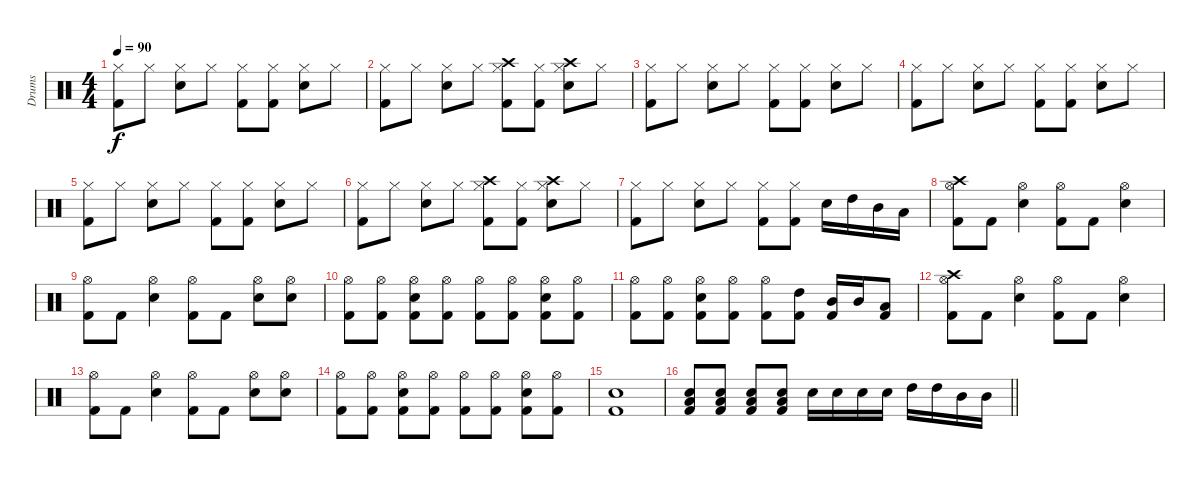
\track ("Drums" "Drums") {instrument percussion}
\staff {score}
\articulation defaults
\ts (4 4)
\tempo 90
\clef neutral
\ks c
("Hi-Hat (closed)" "Kick (hit) 2").8{dy f} "Hi-Hat (closed)".8 ("Hi-Hat (closed)" "Snare (hit) 2").8 "Hi-Hat (closed)".8 ("Hi-Hat (closed)" "Kick (hit) 2").8 ("Hi-Hat (closed)" "Kick (hit) 2").8 ("Hi-Hat (closed)" "Snare (hit) 2").8 "Hi-Hat (closed)".8 |
("Hi-Hat (closed)" "Kick (hit) 2").8 "Hi-Hat (closed)".8 ("Hi-Hat (closed)" "Snare (hit) 2").8 "Hi-Hat (closed)".8 ("Crash high (hit)" "Hi-Hat (closed)" "Kick (hit) 2").8 ("Hi-Hat (closed)" "Kick (hit) 2").8 ("Crash high (hit)" "Hi-Hat (closed)" "Snare (hit) 2").8 "Hi-Hat (closed)".8 |
("Hi-Hat (closed)" "Kick (hit) 2").8 "Hi-Hat (closed)".8 ("Hi-Hat (closed)" "Snare (hit) 2").8 "Hi-Hat (closed)".8 ("Hi-Hat (closed)" "Kick (hit) 2").8 ("Hi-Hat (closed)" "Kick (hit) 2").8 ("Hi-Hat (closed)" "Snare (hit) 2").8 "Hi-Hat (closed)".8 |
("Hi-Hat (closed)" "Kick (hit) 2").8 "Hi-Hat (closed)".8 ("Hi-Hat (closed)" "Snare (hit) 2").8 "Hi-Hat (closed)".8 ("Hi-Hat (closed)" "Kick (hit) 2").8 ("Hi-Hat (closed)" "Kick (hit) 2").8 ("Hi-Hat (closed)" "Snare (hit) 2").8 "Hi-Hat (closed)".8 |
("Hi-Hat (closed)" "Kick (hit) 2").8 "Hi-Hat (closed)".8 ("Hi-Hat (closed)" "Snare (hit) 2").8 "Hi-Hat (closed)".8 ("Hi-Hat (closed)" "Kick (hit) 2").8 ("Hi-Hat (closed)" "Kick (hit) 2").8 ("Hi-Hat (closed)" "Snare (hit) 2").8 "Hi-Hat (closed)".8 |
("Hi-Hat (closed)" "Kick (hit) 2").8 "Hi-Hat (closed)".8 ("Hi-Hat (closed)" "Snare (hit) 2").8 "Hi-Hat (closed)".8 ("Crash high (hit)" "Hi-Hat (closed)" "Kick (hit) 2").8 ("Hi-Hat (closed)" "Kick (hit) 2").8 ("Crash high (hit)" "Hi-Hat (closed)" "Snare (hit) 2").8 "Hi-Hat (closed)".8 |
("Hi-Hat (closed)" "Kick (hit) 2").8 "Hi-Hat (closed)".8 ("Hi-Hat (closed)" "Snare (hit) 2").8 "Hi-Hat (closed)".8 ("Hi-Hat (closed)" "Kick (hit) 2").8 ("Hi-Hat (closed)" "Kick (hit) 2").8 "Snare (hit) 2".16 "High Tom (hit)".16 "Mid Tom (hit)".16 "Low Tom (hit)".16 |
("Crash high (hit)" "Hi-Hat (open)" "Kick (hit) 2").8 "Kick (hit) 2".8 ("Hi-Hat (open)" "Snare (hit) 2").4 ("Hi-Hat (open)" "Kick (hit) 2").8 "Kick (hit) 2".8 ("Hi-Hat (open)" "Snare (hit) 2").4 |
("Hi-Hat (open)" "Kick (hit) 2").8 "Kick (hit) 2".8 ("Hi-Hat (open)" "Snare (hit) 2").4 ("Hi-Hat (open)" "Kick (hit) 2").8 "Kick (hit) 2".8 ("Hi-Hat (open)" "Snare (hit) 2").8 ("Hi-Hat (open)" "Snare (hit) 2").8 |
("Hi-Hat (open)" "Kick (hit) 2").8 ("Hi-Hat (open)" "Kick (hit) 2").8 ("Hi-Hat (open)" "Snare (hit) 2" "Kick (hit) 2").8 ("Hi-Hat (open)" "Kick (hit) 2").8 ("Hi-Hat (open)" "Kick (hit) 2").8 ("Hi-Hat (open)" "Kick (hit) 2").8 ("Hi-Hat (open)" "Snare (hit) 2" "Kick (hit) 2").8 ("Hi-Hat (open)" "Kick (hit) 2").8 |
("Hi-Hat (open)" "Kick (hit) 2").8 ("Hi-Hat (open)" "Kick (hit) 2").8 ("Hi-Hat (open)" "Snare (hit) 2" "Kick (hit) 2").8 ("Hi-Hat (open)" "Kick (hit) 2").8 ("Hi-Hat (open)" "Kick (hit) 2").8 ("High Tom (hit)" "Kick (hit) 2").8 ("Mid Tom (hit)" "Kick (hit) 2").16 "Mid Tom (hit)".16 ("Low Tom (hit)" "Kick (hit) 2").8 |
("Crash high (hit)" "Hi-Hat (open)" "Kick (hit) 2").8 "Kick (hit) 2".8 ("Hi-Hat (open)" "Snare (hit) 2").4 ("Hi-Hat (open)" "Kick (hit) 2").8 "Kick (hit) 2".8 ("Hi-Hat (open)" "Snare (hit) 2").4 |
("Hi-Hat (open)" "Kick (hit) 2").8 "Kick (hit) 2".8 ("Hi-Hat (open)" "Snare (hit) 2").4 ("Hi-Hat (open)" "Kick (hit) 2").8 "Kick (hit) 2".8 ("Hi-Hat (open)" "Snare (hit) 2").8 ("Hi-Hat (open)" "Snare (hit) 2").8 |
("Hi-Hat (open)" "Kick (hit) 2").8 ("Hi-Hat (open)" "Kick (hit) 2").8 ("Hi-Hat (open)" "Snare (hit) 2" "Kick (hit) 2").8 ("Hi-Hat (open)" "Kick (hit) 2").8 ("Hi-Hat (open)" "Kick (hit) 2").8 ("Hi-Hat (open)" "Kick (hit) 2").8 ("Hi-Hat (open)" "Snare (hit) 2" "Kick (hit) 2").8 ("Hi-Hat (open)" "Kick (hit) 2").8 |
("Snare (hit) 2" "Kick (hit) 2").1 |
\barLineRight lightlight
("Snare (hit) 2" "Low Tom (hit)" "Kick (hit) 2").8 ("Snare (hit) 2" "Low Tom (hit)" "Kick (hit) 2").8 ("Snare (hit) 2" "Low Tom (hit)" "Kick (hit) 2").8 ("Snare (hit) 2" "Low Tom (hit)" "Kick (hit) 2").8 "Snare (hit) 2".16 "Snare (hit) 2".16 "Snare (hit) 2".16 "Snare (hit) 2".16 "High Tom (hit)".16 "High Tom (hit)".16 "Mid Tom (hit)".16 "Mid Tom (hit)".16
